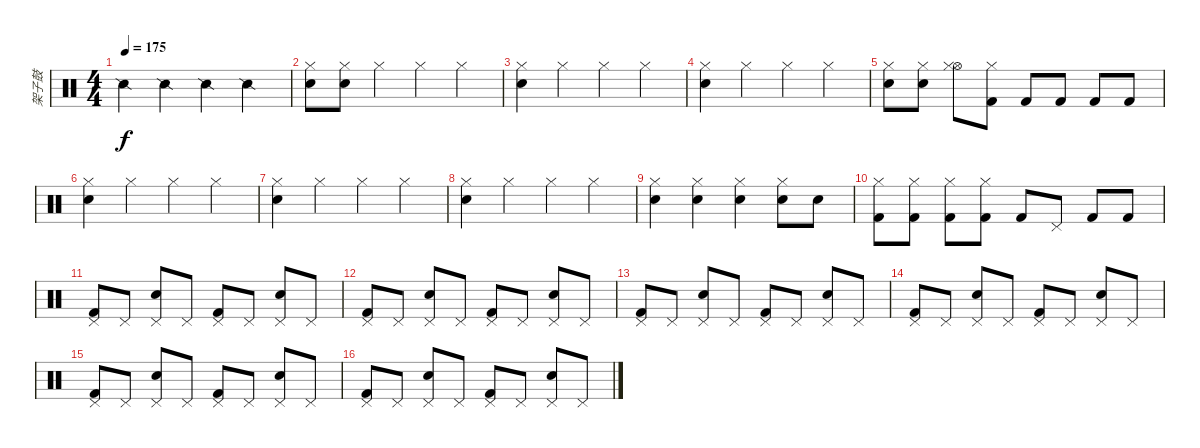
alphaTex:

\track ("架子鼓" "架子鼓") {instrument percussion}
\staff {score}
\articulation defaults
\ts (4 4)
\tempo 175
\clef neutral
\ks c "Snare (side stick) 2".4{dy f} "Snare (side stick) 2".4 "Snare (side stick) 2".4 "Snare (side stick) 2".4
|
("Snare (hit) 2" "Hi-Hat (closed)").8 ("Snare (hit) 2" "Hi-Hat (closed)").8 "Hi-Hat (closed)".4 "Hi-Hat (closed)".4 "Hi-Hat (closed)".4 |
("Snare (hit) 2" "Hi-Hat (closed)").4 "Hi-Hat (closed)".4 "Hi-Hat (closed)".4 "Hi-Hat (closed)".4 |
("Snare (hit) 2" "Hi-Hat (closed)").4 "Hi-Hat (closed)".4 "Hi-Hat (closed)".4 "Hi-Hat (closed)".4 |
("Snare (hit) 2" "Hi-Hat (closed)").8 ("Snare (hit) 2" "Hi-Hat (closed)").8 ("Hi-Hat (open)" "Hi-Hat (closed)").8 ("Kick (hit) 2" "Hi-Hat (closed)").8 "Kick (hit) 2".8 "Kick (hit) 2".8 "Kick (hit) 2".8 "Kick (hit) 2".8 |
("Snare (hit) 2" "Hi-Hat (closed)").4 "Hi-Hat (closed)".4 "Hi-Hat (closed)".4 "Hi-Hat (closed)".4 |
("Snare (hit) 2" "Hi-Hat (closed)").4 "Hi-Hat (closed)".4 "Hi-Hat (closed)".4 "Hi-Hat (closed)".4 |
("Snare (hit) 2" "Hi-Hat (closed)").4 "Hi-Hat (closed)".4 "Hi-Hat (closed)".4 "Hi-Hat (closed)".4 |
("Snare (hit) 2" "Hi-Hat (closed)").4 ("Snare (hit) 2" "Hi-Hat (closed)").4 ("Snare (hit) 2" "Hi-Hat (closed)").4 ("Snare (hit) 2" "Hi-Hat (closed)").8 "Snare (hit) 2".8 |
("Kick (hit) 2" "Hi-Hat (closed)").8 ("Kick (hit) 2" "Hi-Hat (closed)").8 ("Kick (hit) 2" "Hi-Hat (closed)").8 ("Kick (hit) 2" "Hi-Hat (closed)").8 "Kick (hit) 2".8 "Pedal Hi-Hat (hit)".8 "Kick (hit) 2".8 "Kick (hit) 2".8 |
("Pedal Hi-Hat (hit)" "Kick (hit) 2").8 "Pedal Hi-Hat (hit)".8 ("Pedal Hi-Hat (hit)" "Electric Snare (hit)").8 "Pedal Hi-Hat (hit)".8 ("Pedal Hi-Hat (hit)" "Kick (hit) 2").8 "Pedal Hi-Hat (hit)".8 ("Pedal Hi-Hat (hit)" "Electric Snare (hit)").8 "Pedal Hi-Hat (hit)".8 |
("Pedal Hi-Hat (hit)" "Kick (hit) 2").8 "Pedal Hi-Hat (hit)".8 ("Pedal Hi-Hat (hit)" "Electric Snare (hit)").8 "Pedal Hi-Hat (hit)".8 ("Pedal Hi-Hat (hit)" "Kick (hit) 2").8 "Pedal Hi-Hat (hit)".8 ("Pedal Hi-Hat (hit)" "Electric Snare (hit)").8 "Pedal Hi-Hat (hit)".8 |
("Pedal Hi-Hat (hit)" "Kick (hit) 2").8 "Pedal Hi-Hat (hit)".8 ("Pedal Hi-Hat (hit)" "Electric Snare (hit)").8 "Pedal Hi-Hat (hit)".8 ("Pedal Hi-Hat (hit)" "Kick (hit) 2").8 "Pedal Hi-Hat (hit)".8 ("Pedal Hi-Hat (hit)" "Electric Snare (hit)").8 "Pedal Hi-Hat (hit)".8 |
("Pedal Hi-Hat (hit)" "Kick (hit) 2").8 "Pedal Hi-Hat (hit)".8 ("Pedal Hi-Hat (hit)" "Electric Snare (hit)").8 "Pedal Hi-Hat (hit)".8 ("Pedal Hi-Hat (hit)" "Kick (hit) 2").8 "Pedal Hi-Hat (hit)".8 ("Pedal Hi-Hat (hit)" "Electric Snare (hit)").8 "Pedal Hi-Hat (hit)".8 |
("Pedal Hi-Hat (hit)" "Kick (hit) 2").8 "Pedal Hi-Hat (hit)".8 ("Pedal Hi-Hat (hit)" "Electric Snare (hit)").8 "Pedal Hi-Hat (hit)".8 ("Pedal Hi-Hat (hit)" "Kick (hit) 2").8 "Pedal Hi-Hat (hit)".8 ("Pedal Hi-Hat (hit)" "Electric Snare (hit)").8 "Pedal Hi-Hat (hit)".8 |
("Pedal Hi-Hat (hit)" "Kick (hit) 2").8 "Pedal Hi-Hat (hit)".8 ("Pedal Hi-Hat (hit)" "Electric Snare (hit)").8 "Pedal Hi-Hat (hit)".8 ("Pedal Hi-Hat (hit)" "Kick (hit) 2").8 "Pedal Hi-Hat (hit)".8 ("Pedal Hi-Hat (hit)" "Electric Snare (hit)").8 "Pedal Hi-Hat (hit)".8
